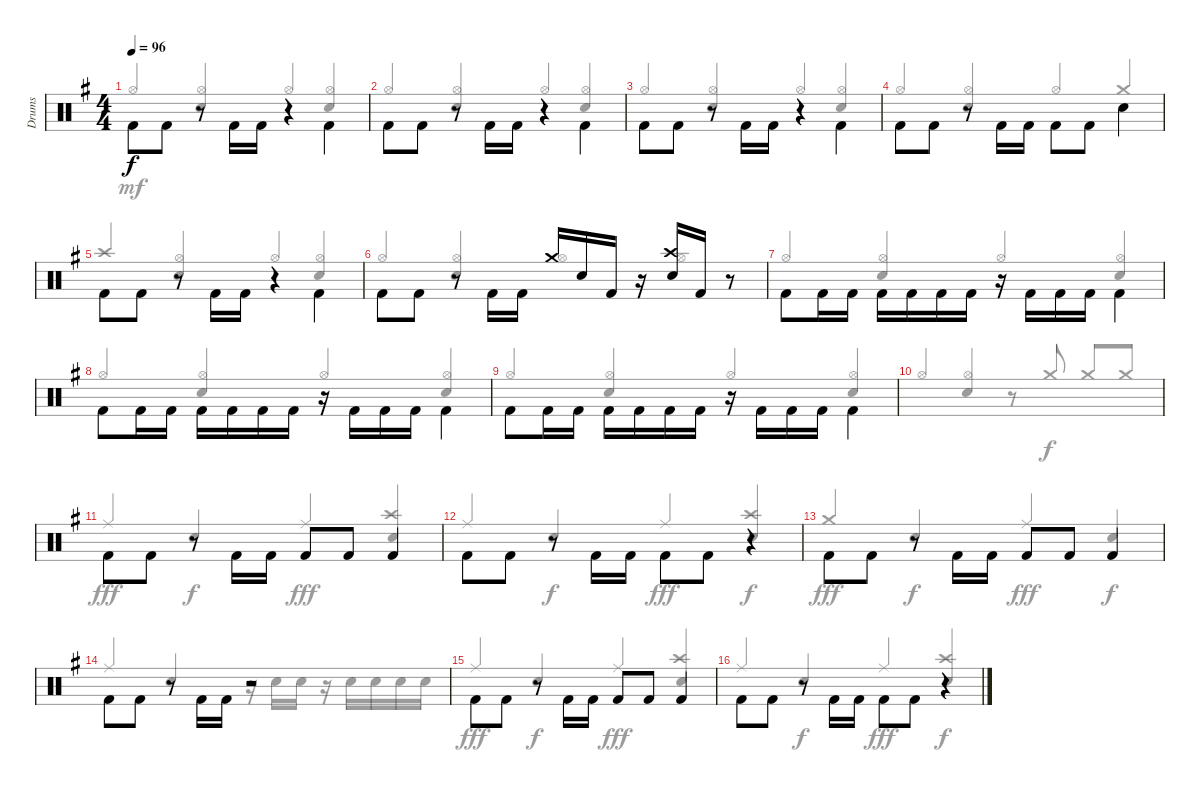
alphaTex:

\track ("Drums" "Drums") {instrument percussion}
\staff {score}
\articulation defaults
\voice
\ts (4 4)
\tempo 96
\clef neutral
\ks g "Kick (hit) 2".8{dy f beam Down} "Kick (hit) 2".8{beam Down}
r.8 "Kick (hit) 2".16{beam Down} "Kick (hit) 2".16{beam Down} r.4 "Kick (hit) 2".4{beam Down} |
"Kick (hit) 2".8{beam Down} "Kick (hit) 2".8{beam Down} r.8 "Kick (hit) 2".16{beam Down} "Kick (hit) 2".16{beam Down} r.4 "Kick (hit) 2".4{beam Down} |
"Kick (hit) 2".8{beam Down} "Kick (hit) 2".8{beam Down} r.8 "Kick (hit) 2".16{beam Down} "Kick (hit) 2".16{beam Down} r.4 "Kick (hit) 2".4{beam Down} |
"Kick (hit) 2".8{beam Down} "Kick (hit) 2".8{beam Down} r.8 "Kick (hit) 2".16{beam Down} "Kick (hit) 2".16{beam Down} "Kick (hit) 2".8{beam Down} "Kick (hit) 2".8{beam Down} "Snare (hit) 2".4{beam Down} |
"Kick (hit) 2".8{beam Down} "Kick (hit) 2".8{beam Down} r.8 "Kick (hit) 2".16{beam Down} "Kick (hit) 2".16{beam Down} r.4 "Kick (hit) 2".4{beam Down} |
"Kick (hit) 2".8{beam Down} "Kick (hit) 2".8{beam Down} r.8 "Kick (hit) 2".16{beam Down} "Kick (hit) 2".16{beam Down} "Crash medium (hit)".16 "Snare (hit) 2".16 "Kick (hit) 2".16 r.16 ("Crash high (hit)" "Snare (hit) 2").16 "Kick (hit) 2".16 r.8 |
"Kick (hit) 2".8{beam Down} "Kick (hit) 2".16{beam Down} "Kick (hit) 2".16{beam Down} "Kick (hit) 2".16{beam Down} "Kick (hit) 2".16{beam Down} "Kick (hit) 2".16{beam Down} "Kick (hit) 2".16{beam Down} r.16 "Kick (hit) 2".16{beam Down} "Kick (hit) 2".16{beam Down} "Kick (hit) 2".16{beam Down} "Kick (hit) 2".4{beam Down} |
"Kick (hit) 2".8{beam Down} "Kick (hit) 2".16{beam Down} "Kick (hit) 2".16{beam Down} "Kick (hit) 2".16{beam Down} "Kick (hit) 2".16{beam Down} "Kick (hit) 2".16{beam Down} "Kick (hit) 2".16{beam Down} r.16 "Kick (hit) 2".16{beam Down} "Kick (hit) 2".16{beam Down} "Kick (hit) 2".16{beam Down} "Kick (hit) 2".4{beam Down} |
"Kick (hit) 2".8{beam Down} "Kick (hit) 2".16{beam Down} "Kick (hit) 2".16{beam Down} "Kick (hit) 2".16{beam Down} "Kick (hit) 2".16{beam Down} "Kick (hit) 2".16{beam Down} "Kick (hit) 2".16{beam Down} r.16 "Kick (hit) 2".16{beam Down} "Kick (hit) 2".16{beam Down} "Kick (hit) 2".16{beam Down} "Kick (hit) 2".4{beam Down} |
|
"Kick (hit) 2".8{beam Down} "Kick (hit) 2".8{beam Down} r.8 "Kick (hit) 2".16{beam Down} "Kick (hit) 2".16{beam Down} "Kick (hit) 2".8 "Kick (hit) 2".8 "Kick (hit) 2".4 |
"Kick (hit) 2".8{beam Down} "Kick (hit) 2".8{beam Down} r.8 "Kick (hit) 2".16{beam Down} "Kick (hit) 2".16{beam Down} "Kick (hit) 2".8{beam Down} "Kick (hit) 2".8{beam Down} r.4 |
"Kick (hit) 2".8{beam Down} "Kick (hit) 2".8{beam Down} r.8 "Kick (hit) 2".16{beam Down} "Kick (hit) 2".16{beam Down} "Kick (hit) 2".8 "Kick (hit) 2".8 "Kick (hit) 2".4 |
"Kick (hit) 2".8{beam Down} "Kick (hit) 2".8{beam Down} r.8 "Kick (hit) 2".16{beam Down} "Kick (hit) 2".16{beam Down} r.2 |
"Kick (hit) 2".8{beam Down} "Kick (hit) 2".8{beam Down} r.8 "Kick (hit) 2".16{beam Down} "Kick (hit) 2".16{beam Down} "Kick (hit) 2".8 "Kick (hit) 2".8 "Kick (hit) 2".4 |
"Kick (hit) 2".8{beam Down} "Kick (hit) 2".8{beam Down} r.8 "Kick (hit) 2".16{beam Down} "Kick (hit) 2".16{beam Down} "Kick (hit) 2".8{beam Down} "Kick (hit) 2".8{beam Down} r.4
\voice
\clef neutral
\ottava regular
\simile none
\ks g "Hi-Hat (open)".4{dy mf beam Up}
("Hi-Hat (open)" "Snare (hit) 2").4{beam Up} "Hi-Hat (open)".4{beam Up} ("Hi-Hat (open)" "Snare (hit) 2").4{beam Up} |
"Hi-Hat (open)".4{beam Up} ("Hi-Hat (open)" "Snare (hit) 2").4{beam Up} "Hi-Hat (open)".4{beam Up} ("Hi-Hat (open)" "Snare (hit) 2").4{beam Up} |
"Hi-Hat (open)".4{beam Up} ("Hi-Hat (open)" "Snare (hit) 2").4{beam Up} "Hi-Hat (open)".4{beam Up} ("Hi-Hat (open)" "Snare (hit) 2").4{beam Up} |
"Hi-Hat (open)".4{beam Up} ("Hi-Hat (open)" "Snare (hit) 2").4{beam Up} "Hi-Hat (open)".4{beam Up} "Crash medium (hit)".4{beam Up} |
"Crash high (hit)".4{beam Up} ("Hi-Hat (open)" "Snare (hit) 2").4{beam Up} "Hi-Hat (open)".4{beam Up} ("Hi-Hat (open)" "Snare (hit) 2").4{beam Up} |
"Hi-Hat (open)".4{beam Up} ("Hi-Hat (open)" "Snare (hit) 2").4{beam Up} "Hi-Hat (open)".4{beam Up} "Hi-Hat (open)".4{beam Up} |
"Hi-Hat (open)".4{beam Up} ("Hi-Hat (open)" "Snare (hit) 2").4{beam Up} "Hi-Hat (open)".4{beam Up} ("Hi-Hat (open)" "Snare (hit) 2").4{beam Up} |
"Hi-Hat (open)".4{beam Up} ("Hi-Hat (open)" "Snare (hit) 2").4{beam Up} "Hi-Hat (open)".4{beam Up} ("Hi-Hat (open)" "Snare (hit) 2").4{beam Up} |
"Hi-Hat (open)".4{beam Up} ("Hi-Hat (open)" "Snare (hit) 2").4{beam Up} "Hi-Hat (open)".4{beam Up} ("Hi-Hat (open)" "Snare (hit) 2").4{beam Up} |
"Hi-Hat (open)".4{beam Up} ("Hi-Hat (open)" "Snare (hit) 2").4{beam Up} r.8 "Crash medium (hit)".8{dy f beam Up} "Crash medium (hit)".8{beam Up} "Crash medium (hit)".8{beam Up} |
"Ride (middle)".4{dy fff beam Up} "Snare (hit) 2".4{dy f beam Up} "Ride (middle)".4{dy fff beam Up} ("Crash high (hit)" "Snare (hit) 2").4{beam Up} |
"Ride (middle)".4{beam Up} "Snare (hit) 2".4{dy f beam Up} "Ride (middle)".4{dy fff beam Up} ("Crash high (hit)" "Snare (hit) 2").4{dy f beam Up} |
"Crash medium (hit)".4{dy fff beam Up} "Snare (hit) 2".4{dy f beam Up} "Ride (middle)".4{dy fff beam Up} "Snare (hit) 2".4{dy f beam Up} |
"Ride (middle)".4{beam Up} "Snare (hit) 2".4{beam Up} r.16 "Snare (hit) 2".16{beam Down} "Snare (hit) 2".16{beam Down} r.16 "Snare (hit) 2".16{beam Down} "Snare (hit) 2".16{beam Down} "Snare (hit) 2".16{beam Down} "Snare (hit) 2".16{beam Down} |
"Ride (middle)".4{dy fff beam Up} "Snare (hit) 2".4{dy f beam Up} "Ride (middle)".4{dy fff beam Up} ("Crash high (hit)" "Snare (hit) 2").4{beam Up} |
"Ride (middle)".4{beam Up} "Snare (hit) 2".4{dy f beam Up} "Ride (middle)".4{dy fff beam Up} ("Crash high (hit)" "Snare (hit) 2").4{dy f beam Up}
